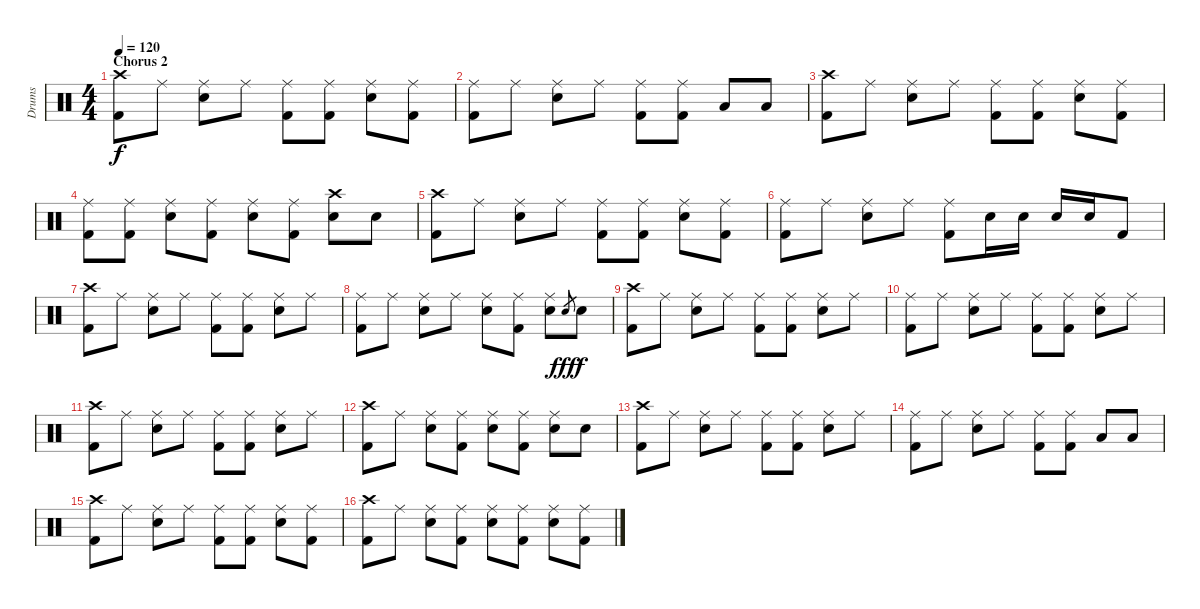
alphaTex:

\track ("Drums" "Drums") {instrument percussion}
\staff {score}
\articulation defaults
\ts (4 4)
\section ("" "Chorus 2")
\tempo 120
\clef neutral
\ks c
("Crash high (hit)" "Kick (hit) 2").8{dy f} "Ride (middle)".8 ("Ride (middle)" "Electric Snare (hit)").8 "Ride (middle)".8 ("Ride (middle)" "Kick (hit) 2").8 ("Ride (middle)" "Kick (hit) 2").8 ("Ride (middle)" "Electric Snare (hit)").8 ("Ride (middle)" "Kick (hit) 2").8 |
("Ride (middle)" "Kick (hit) 2").8 "Ride (middle)".8 ("Ride (middle)" "Electric Snare (hit)").8 "Ride (middle)".8 ("Ride (middle)" "Kick (hit) 2").8 ("Ride (middle)" "Kick (hit) 2").8 "Low Floor Tom (hit)".8 "Low Floor Tom (hit)".8 |
("Crash high (hit)" "Kick (hit) 2").8 "Ride (middle)".8 ("Ride (middle)" "Electric Snare (hit)").8 "Ride (middle)".8 ("Ride (middle)" "Kick (hit) 2").8 ("Ride (middle)" "Kick (hit) 2").8 ("Ride (middle)" "Electric Snare (hit)").8 ("Ride (middle)" "Kick (hit) 2").8 |
("Ride (middle)" "Kick (hit) 2").8 ("Ride (middle)" "Kick (hit) 2").8 ("Ride (middle)" "Electric Snare (hit)").8 ("Ride (middle)" "Kick (hit) 2").8 ("Ride (middle)" "Electric Snare (hit)").8 ("Ride (middle)" "Kick (hit) 2").8 ("Crash high (hit)" "Electric Snare (hit)").8 "Electric Snare (hit)".8 |
("Crash high (hit)" "Kick (hit) 2").8 "Ride (middle)".8 ("Ride (middle)" "Electric Snare (hit)").8 "Ride (middle)".8 ("Ride (middle)" "Kick (hit) 2").8 ("Ride (middle)" "Kick (hit) 2").8 ("Ride (middle)" "Electric Snare (hit)").8 ("Ride (middle)" "Kick (hit) 2").8 |
("Ride (middle)" "Kick (hit) 2").8 "Ride (middle)".8 ("Ride (middle)" "Electric Snare (hit)").8 "Ride (middle)".8 ("Ride (middle)" "Kick (hit) 2").8 "Electric Snare (hit)".16 "Electric Snare (hit)".16 "Electric Snare (hit)".16 "Electric Snare (hit)".16 "Kick (hit) 2".8 |
("Crash high (hit)" "Kick (hit) 2").8 "Ride (middle)".8 ("Ride (middle)" "Electric Snare (hit)").8 "Ride (middle)".8 ("Ride (middle)" "Kick (hit) 2").8 ("Ride (middle)" "Kick (hit) 2").8 ("Ride (middle)" "Electric Snare (hit)").8 "Ride (middle)".8 |
("Ride (middle)" "Kick (hit) 2").8 "Ride (middle)".8 ("Ride (middle)" "Electric Snare (hit)").8 "Ride (middle)".8 ("Ride (middle)" "Electric Snare (hit)").8 ("Ride (middle)" "Kick (hit) 2").8 ("Ride (middle)" "Electric Snare (hit)").8 "Electric Snare (hit)".8{gr dy fff} "Electric Snare (hit)".8{dy f} |
("Crash high (hit)" "Kick (hit) 2").8 "Ride (middle)".8 ("Ride (middle)" "Electric Snare (hit)").8 "Ride (middle)".8 ("Ride (middle)" "Kick (hit) 2").8 ("Ride (middle)" "Kick (hit) 2").8 ("Ride (middle)" "Electric Snare (hit)").8 "Ride (middle)".8 |
("Ride (middle)" "Kick (hit) 2").8 "Ride (middle)".8 ("Ride (middle)" "Electric Snare (hit)").8 "Ride (middle)".8 ("Ride (middle)" "Kick (hit) 2").8 ("Ride (middle)" "Kick (hit) 2").8 ("Ride (middle)" "Electric Snare (hit)").8 "Ride (middle)".8 |
("Crash high (hit)" "Kick (hit) 2").8 "Ride (middle)".8 ("Ride (middle)" "Electric Snare (hit)").8 "Ride (middle)".8 ("Ride (middle)" "Kick (hit) 2").8 ("Ride (middle)" "Kick (hit) 2").8 ("Ride (middle)" "Electric Snare (hit)").8 "Ride (middle)".8 |
("Crash high (hit)" "Kick (hit) 2").8 "Ride (middle)".8 ("Ride (middle)" "Electric Snare (hit)").8 ("Ride (middle)" "Kick (hit) 2").8 ("Ride (middle)" "Electric Snare (hit)").8 ("Ride (middle)" "Kick (hit) 2").8 ("Ride (middle)" "Electric Snare (hit)").8 "Electric Snare (hit)".8 |
("Crash high (hit)" "Kick (hit) 2").8 "Ride (middle)".8 ("Ride (middle)" "Electric Snare (hit)").8 "Ride (middle)".8 ("Ride (middle)" "Kick (hit) 2").8 ("Ride (middle)" "Kick (hit) 2").8 ("Ride (middle)" "Electric Snare (hit)").8 "Ride (middle)".8 |
("Ride (middle)" "Kick (hit) 2").8 "Ride (middle)".8 ("Ride (middle)" "Electric Snare (hit)").8 "Ride (middle)".8 ("Ride (middle)" "Kick (hit) 2").8 ("Ride (middle)" "Kick (hit) 2").8 "Low Floor Tom (hit)".8 "Low Floor Tom (hit)".8 |
("Crash high (hit)" "Kick (hit) 2").8 "Ride (middle)".8 ("Ride (middle)" "Electric Snare (hit)").8 "Ride (middle)".8 ("Ride (middle)" "Kick (hit) 2").8 ("Ride (middle)" "Kick (hit) 2").8 ("Ride (middle)" "Electric Snare (hit)").8 ("Ride (middle)" "Kick (hit) 2").8 |
("Crash high (hit)" "Kick (hit) 2").8 "Ride (middle)".8 ("Ride (middle)" "Electric Snare (hit)").8 ("Ride (middle)" "Kick (hit) 2").8 ("Ride (middle)" "Electric Snare (hit)").8 ("Ride (middle)" "Kick (hit) 2").8 ("Ride (middle)" "Electric Snare (hit)").8 ("Ride (middle)" "Kick (hit) 2").8
